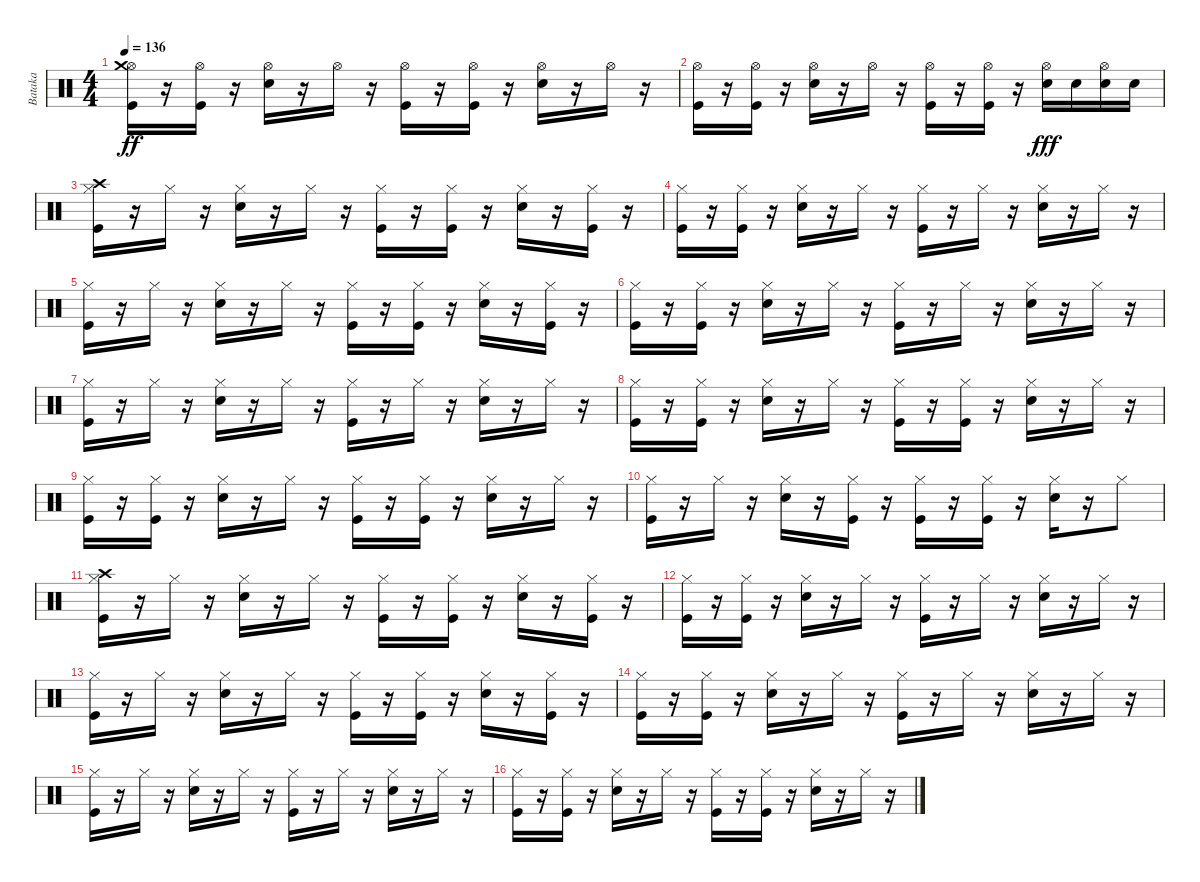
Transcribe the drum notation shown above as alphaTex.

\track ("Bataka" "Bataka") {instrument percussion}
\staff {score}
\articulation defaults
\ts (4 4)
\tempo 136
\clef neutral
\ks c
("Kick (hit)" "Hi-Hat (open)" "Crash medium (hit)").16{dy ff} r.16 ("Kick (hit)" "Hi-Hat (open)").16 r.16 ("Snare (hit) 2" "Hi-Hat (open)").16 r.16 "Hi-Hat (open)".16 r.16 ("Kick (hit)" "Hi-Hat (open)").16 r.16 ("Kick (hit)" "Hi-Hat (open)").16 r.16 ("Snare (hit) 2" "Hi-Hat (open)").16 r.16 "Hi-Hat (open)".16 r.16 |
("Kick (hit)" "Hi-Hat (open)").16 r.16 ("Kick (hit)" "Hi-Hat (open)").16 r.16 ("Snare (hit) 2" "Hi-Hat (open)").16 r.16 "Hi-Hat (open)".16 r.16 ("Kick (hit)" "Hi-Hat (open)").16 r.16 ("Kick (hit)" "Hi-Hat (open)").16 r.16 ("Hi-Hat (open)" "Snare (hit) 2").16{dy fff} "Snare (hit) 2".16 ("Hi-Hat (open)" "Snare (hit) 2").16 "Snare (hit) 2".16 |
("Kick (hit)" "Hi-Hat (closed)" "Crash high (hit)").16 r.16 "Hi-Hat (closed)".16 r.16 ("Snare (hit) 2" "Hi-Hat (closed)").16 r.16 "Hi-Hat (closed)".16 r.16 ("Kick (hit)" "Hi-Hat (closed)").16 r.16 ("Kick (hit)" "Hi-Hat (closed)").16 r.16 ("Snare (hit) 2" "Hi-Hat (closed)").16 r.16 ("Kick (hit)" "Hi-Hat (closed)").16 r.16 |
("Kick (hit)" "Hi-Hat (closed)").16 r.16 ("Kick (hit)" "Hi-Hat (closed)").16 r.16 ("Snare (hit) 2" "Hi-Hat (closed)").16 r.16 "Hi-Hat (closed)".16 r.16 ("Kick (hit)" "Hi-Hat (closed)").16 r.16 "Hi-Hat (closed)".16 r.16 ("Snare (hit) 2" "Hi-Hat (closed)").16 r.16 "Hi-Hat (closed)".16 r.16 |
("Kick (hit)" "Hi-Hat (closed)").16 r.16 "Hi-Hat (closed)".16 r.16 ("Snare (hit) 2" "Hi-Hat (closed)").16 r.16 "Hi-Hat (closed)".16 r.16 ("Kick (hit)" "Hi-Hat (closed)").16 r.16 ("Kick (hit)" "Hi-Hat (closed)").16 r.16 ("Snare (hit) 2" "Hi-Hat (closed)").16 r.16 ("Kick (hit)" "Hi-Hat (closed)").16 r.16 |
("Kick (hit)" "Hi-Hat (closed)").16 r.16 ("Kick (hit)" "Hi-Hat (closed)").16 r.16 ("Snare (hit) 2" "Hi-Hat (closed)").16 r.16 "Hi-Hat (closed)".16 r.16 ("Kick (hit)" "Hi-Hat (closed)").16 r.16 "Hi-Hat (closed)".16 r.16 ("Snare (hit) 2" "Hi-Hat (closed)").16 r.16 "Hi-Hat (closed)".16 r.16 |
("Kick (hit)" "Hi-Hat (closed)").16 r.16 "Hi-Hat (closed)".16 r.16 ("Snare (hit) 2" "Hi-Hat (closed)").16 r.16 "Hi-Hat (closed)".16 r.16 ("Kick (hit)" "Hi-Hat (closed)").16 r.16 "Hi-Hat (closed)".16 r.16 ("Snare (hit) 2" "Hi-Hat (closed)").16 r.16 "Hi-Hat (closed)".16 r.16 |
("Kick (hit)" "Hi-Hat (closed)").16 r.16 ("Kick (hit)" "Hi-Hat (closed)").16 r.16 ("Snare (hit) 2" "Hi-Hat (closed)").16 r.16 "Hi-Hat (closed)".16 r.16 ("Kick (hit)" "Hi-Hat (closed)").16 r.16 ("Kick (hit)" "Hi-Hat (closed)").16 r.16 ("Snare (hit) 2" "Hi-Hat (closed)").16 r.16 "Hi-Hat (closed)".16 r.16 |
("Kick (hit)" "Hi-Hat (closed)").16 r.16 ("Kick (hit)" "Hi-Hat (closed)").16 r.16 ("Snare (hit) 2" "Hi-Hat (closed)").16 r.16 "Hi-Hat (closed)".16 r.16 ("Kick (hit)" "Hi-Hat (closed)").16 r.16 ("Kick (hit)" "Hi-Hat (closed)").16 r.16 ("Snare (hit) 2" "Hi-Hat (closed)").16 r.16 "Hi-Hat (closed)".16 r.16 |
("Kick (hit)" "Hi-Hat (closed)").16 r.16 "Hi-Hat (closed)".16 r.16 ("Snare (hit) 2" "Hi-Hat (closed)").16 r.16 ("Kick (hit)" "Hi-Hat (closed)").16 r.16 ("Kick (hit)" "Hi-Hat (closed)").16 r.16 ("Kick (hit)" "Hi-Hat (closed)").16 r.16 ("Snare (hit) 2" "Hi-Hat (closed)").16 r.16 "Hi-Hat (closed)".8 |
("Kick (hit)" "Hi-Hat (closed)" "Crash high (hit)").16 r.16 "Hi-Hat (closed)".16 r.16 ("Snare (hit) 2" "Hi-Hat (closed)").16 r.16 "Hi-Hat (closed)".16 r.16 ("Kick (hit)" "Hi-Hat (closed)").16 r.16 ("Kick (hit)" "Hi-Hat (closed)").16 r.16 ("Snare (hit) 2" "Hi-Hat (closed)").16 r.16 ("Kick (hit)" "Hi-Hat (closed)").16 r.16 |
("Kick (hit)" "Hi-Hat (closed)").16 r.16 ("Kick (hit)" "Hi-Hat (closed)").16 r.16 ("Snare (hit) 2" "Hi-Hat (closed)").16 r.16 "Hi-Hat (closed)".16 r.16 ("Kick (hit)" "Hi-Hat (closed)").16 r.16 "Hi-Hat (closed)".16 r.16 ("Snare (hit) 2" "Hi-Hat (closed)").16 r.16 "Hi-Hat (closed)".16 r.16 |
("Kick (hit)" "Hi-Hat (closed)").16 r.16 "Hi-Hat (closed)".16 r.16 ("Snare (hit) 2" "Hi-Hat (closed)").16 r.16 "Hi-Hat (closed)".16 r.16 ("Kick (hit)" "Hi-Hat (closed)").16 r.16 ("Kick (hit)" "Hi-Hat (closed)").16 r.16 ("Snare (hit) 2" "Hi-Hat (closed)").16 r.16 ("Kick (hit)" "Hi-Hat (closed)").16 r.16 |
("Kick (hit)" "Hi-Hat (closed)").16 r.16 ("Kick (hit)" "Hi-Hat (closed)").16 r.16 ("Snare (hit) 2" "Hi-Hat (closed)").16 r.16 "Hi-Hat (closed)".16 r.16 ("Kick (hit)" "Hi-Hat (closed)").16 r.16 "Hi-Hat (closed)".16 r.16 ("Snare (hit) 2" "Hi-Hat (closed)").16 r.16 "Hi-Hat (closed)".16 r.16 |
("Kick (hit)" "Hi-Hat (closed)").16 r.16 "Hi-Hat (closed)".16 r.16 ("Snare (hit) 2" "Hi-Hat (closed)").16 r.16 "Hi-Hat (closed)".16 r.16 ("Kick (hit)" "Hi-Hat (closed)").16 r.16 "Hi-Hat (closed)".16 r.16 ("Snare (hit) 2" "Hi-Hat (closed)").16 r.16 "Hi-Hat (closed)".16 r.16 |
("Kick (hit)" "Hi-Hat (closed)").16 r.16 ("Kick (hit)" "Hi-Hat (closed)").16 r.16 ("Snare (hit) 2" "Hi-Hat (closed)").16 r.16 "Hi-Hat (closed)".16 r.16 ("Kick (hit)" "Hi-Hat (closed)").16 r.16 ("Kick (hit)" "Hi-Hat (closed)").16 r.16 ("Snare (hit) 2" "Hi-Hat (closed)").16 r.16 "Hi-Hat (closed)".16 r.16
